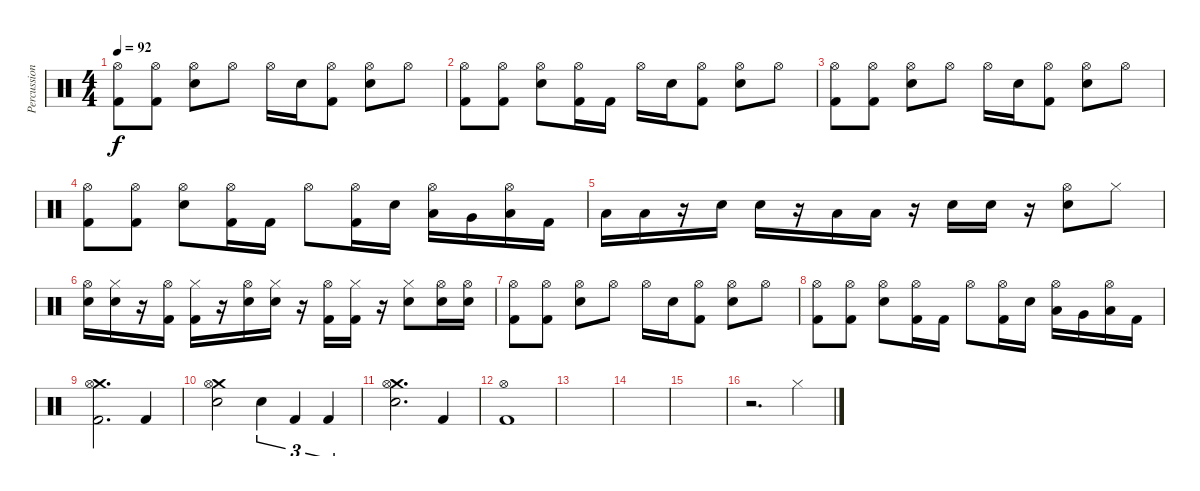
\track ("Percussion" "Percussion") {instrument percussion}
\staff {score}
\articulation defaults
\ts (4 4)
\tempo 92
\clef neutral
\ks c
("Hi-Hat (open)" "Kick (hit) 2").8{dy f} ("Hi-Hat (open)" "Kick (hit) 2").8 ("Hi-Hat (open)" "Electric Snare (hit)").8 "Hi-Hat (open)".8 "Hi-Hat (open)".16 "Electric Snare (hit)".16 ("Hi-Hat (open)" "Kick (hit) 2").8 ("Hi-Hat (open)" "Electric Snare (hit)").8 "Hi-Hat (open)".8 |
("Hi-Hat (open)" "Kick (hit) 2").8 ("Hi-Hat (open)" "Kick (hit) 2").8 ("Hi-Hat (open)" "Electric Snare (hit)").8 ("Hi-Hat (open)" "Kick (hit) 2").16 "Kick (hit) 2".16 "Hi-Hat (open)".16 "Electric Snare (hit)".16 ("Hi-Hat (open)" "Kick (hit) 2").8 ("Hi-Hat (open)" "Electric Snare (hit)").8 "Hi-Hat (open)".8 |
("Hi-Hat (open)" "Kick (hit) 2").8 ("Hi-Hat (open)" "Kick (hit) 2").8 ("Hi-Hat (open)" "Electric Snare (hit)").8 "Hi-Hat (open)".8 "Hi-Hat (open)".16 "Electric Snare (hit)".16 ("Hi-Hat (open)" "Kick (hit) 2").8 ("Hi-Hat (open)" "Electric Snare (hit)").8 "Hi-Hat (open)".8 |
("Hi-Hat (open)" "Kick (hit) 2").8 ("Hi-Hat (open)" "Kick (hit) 2").8 ("Hi-Hat (open)" "Electric Snare (hit)").8 ("Hi-Hat (open)" "Kick (hit) 2").16 "Kick (hit) 2".16 "Hi-Hat (open)".8 ("Hi-Hat (open)" "Kick (hit) 2").16 "Electric Snare (hit)".16 ("Hi-Hat (open)" "Low Tom (hit)").16 "Very Low Tom (hit)".16 ("Hi-Hat (open)" "Low Floor Tom (hit)").16 "Kick (hit) 2".16 |
"Low Tom (hit)".16 "Low Tom (hit)".16 r.16 "Electric Snare (hit)".16 "Electric Snare (hit)".16 r.16 "Low Tom (hit)".16 "Low Tom (hit)".16 r.16 "Electric Snare (hit)".16 "Electric Snare (hit)".16 r.16 ("Hi-Hat (open)" "Electric Snare (hit)").8 "Hi-Hat (closed)".8 |
("Hi-Hat (open)" "Electric Snare (hit)").16 ("Hi-Hat (closed)" "Electric Snare (hit)").16 r.16 ("Hi-Hat (open)" "Kick (hit) 2").16 ("Hi-Hat (closed)" "Kick (hit) 2").16 r.16 ("Hi-Hat (open)" "Electric Snare (hit)").16 ("Hi-Hat (closed)" "Electric Snare (hit)").16 r.16 ("Hi-Hat (open)" "Kick (hit) 2").16 ("Hi-Hat (closed)" "Kick (hit) 2").16 r.16 ("Hi-Hat (closed)" "Electric Snare (hit)").8 ("Hi-Hat (open)" "Electric Snare (hit)").16 ("Hi-Hat (open)" "Electric Snare (hit)").16 |
("Hi-Hat (open)" "Kick (hit) 2").8 ("Hi-Hat (open)" "Kick (hit) 2").8 ("Hi-Hat (open)" "Electric Snare (hit)").8 "Hi-Hat (open)".8 "Hi-Hat (open)".16 "Electric Snare (hit)".16 ("Hi-Hat (open)" "Kick (hit) 2").8 ("Hi-Hat (open)" "Electric Snare (hit)").8 "Hi-Hat (open)".8 |
("Hi-Hat (open)" "Kick (hit) 2").8 ("Hi-Hat (open)" "Kick (hit) 2").8 ("Hi-Hat (open)" "Electric Snare (hit)").8 ("Hi-Hat (open)" "Kick (hit) 2").16 "Kick (hit) 2".16 "Hi-Hat (open)".8 ("Hi-Hat (open)" "Kick (hit) 2").16 "Electric Snare (hit)".16 ("Hi-Hat (open)" "Low Tom (hit)").16 "Very Low Tom (hit)".16 ("Hi-Hat (open)" "Low Floor Tom (hit)").16 "Kick (hit) 2".16 |
("Crash medium (hit)" "Hi-Hat (open)" "Kick (hit) 2").2{d} "Kick (hit) 2".4 |
("Crash medium (hit)" "Hi-Hat (open)" "Electric Snare (hit)").2 "Electric Snare (hit)".4{tu (3 2)} "Kick (hit) 2".4{tu (3 2)} "Kick (hit) 2".4{tu (3 2)} |
("Crash medium (hit)" "Hi-Hat (open)" "Electric Snare (hit)").2{d} "Kick (hit) 2".4 |
("Hi-Hat (open)" "Kick (hit) 2").1 |
|
|
|
r.2{d} "Hi-Hat (closed)".4
